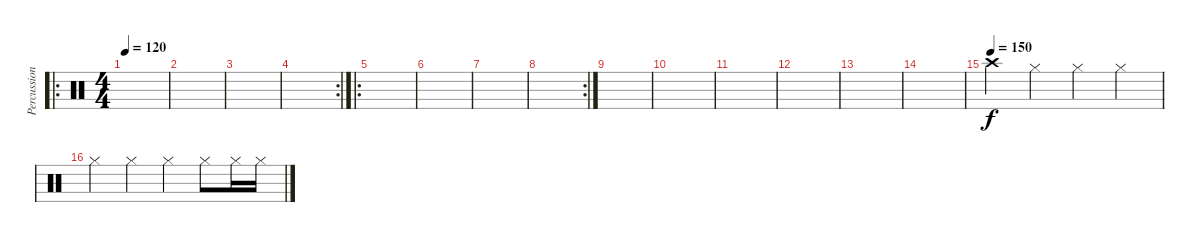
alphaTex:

\track ("Percussion" "Percussion") {instrument percussion}
\staff {score}
\articulation defaults
\ro
\ts (4 4)
\tempo 120
\clef neutral
\ks c
|
|
|
\rc 2
|
\ro
|
|
|
\rc 2
|
|
|
|
|
|
|
\tempo (150)
"Crash high (hit)".4 "Hi-Hat (closed)".4 "Hi-Hat (closed)".4 "Hi-Hat (closed)".4 |
"Hi-Hat (closed)".4 "Hi-Hat (closed)".4 "Hi-Hat (closed)".4 "Hi-Hat (closed)".8 "Hi-Hat (closed)".16 "Hi-Hat (closed)".16
